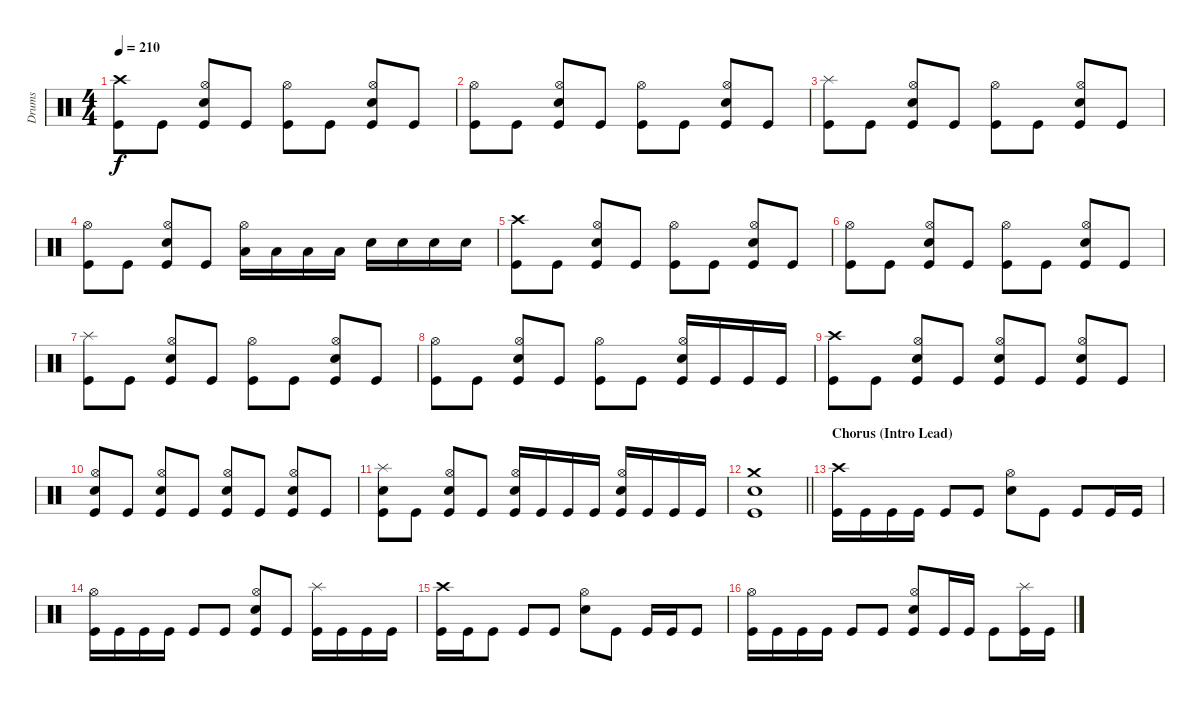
\track ("Drums" "Drums") {instrument percussion}
\staff {score}
\articulation defaults
\ts (4 4)
\tempo 210
\clef neutral
\ks c
("Crash high (hit)" "Kick (hit)").8{dy f} "Kick (hit)".8 ("Hi-Hat (open)" "Electric Snare (hit)" "Kick (hit)").8 "Kick (hit)".8 ("Hi-Hat (open)" "Kick (hit)").8 "Kick (hit)".8 ("Hi-Hat (open)" "Electric Snare (hit)" "Kick (hit)").8 "Kick (hit)".8 |
("Hi-Hat (open)" "Kick (hit)").8 "Kick (hit)".8 ("Hi-Hat (open)" "Electric Snare (hit)" "Kick (hit)").8 "Kick (hit)".8 ("Hi-Hat (open)" "Kick (hit)").8 "Kick (hit)".8 ("Hi-Hat (open)" "Electric Snare (hit)" "Kick (hit)").8 "Kick (hit)".8 |
("Splash (hit)" "Kick (hit)").8 "Kick (hit)".8 ("Hi-Hat (open)" "Electric Snare (hit)" "Kick (hit)").8 "Kick (hit)".8 ("Hi-Hat (open)" "Kick (hit)").8 "Kick (hit)".8 ("Hi-Hat (open)" "Electric Snare (hit)" "Kick (hit)").8 "Kick (hit)".8 |
("Hi-Hat (open)" "Kick (hit)").8 "Kick (hit)".8 ("Hi-Hat (open)" "Electric Snare (hit)" "Kick (hit)").8 "Kick (hit)".8 ("Hi-Hat (open)" "Low Tom (hit)").16 "Low Tom (hit)".16 "Low Tom (hit)".16 "Low Tom (hit)".16 "Electric Snare (hit)".16 "Electric Snare (hit)".16 "Electric Snare (hit)".16 "Electric Snare (hit)".16 |
("Crash high (hit)" "Kick (hit)").8 "Kick (hit)".8 ("Hi-Hat (open)" "Electric Snare (hit)" "Kick (hit)").8 "Kick (hit)".8 ("Hi-Hat (open)" "Kick (hit)").8 "Kick (hit)".8 ("Hi-Hat (open)" "Electric Snare (hit)" "Kick (hit)").8 "Kick (hit)".8 |
("Hi-Hat (open)" "Kick (hit)").8 "Kick (hit)".8 ("Hi-Hat (open)" "Electric Snare (hit)" "Kick (hit)").8 "Kick (hit)".8 ("Hi-Hat (open)" "Kick (hit)").8 "Kick (hit)".8 ("Hi-Hat (open)" "Electric Snare (hit)" "Kick (hit)").8 "Kick (hit)".8 |
("Splash (hit)" "Kick (hit)").8 "Kick (hit)".8 ("Hi-Hat (open)" "Electric Snare (hit)" "Kick (hit)").8 "Kick (hit)".8 ("Hi-Hat (open)" "Kick (hit)").8 "Kick (hit)".8 ("Hi-Hat (open)" "Electric Snare (hit)" "Kick (hit)").8 "Kick (hit)".8 |
("Hi-Hat (open)" "Kick (hit)").8 "Kick (hit)".8 ("Hi-Hat (open)" "Electric Snare (hit)" "Kick (hit)").8 "Kick (hit)".8 ("Hi-Hat (open)" "Kick (hit)").8 "Kick (hit)".8 ("Hi-Hat (open)" "Electric Snare (hit)" "Kick (hit)").16 "Kick (hit)".16 "Kick (hit)".16 "Kick (hit)".16 |
("Crash high (hit)" "Kick (hit)").8 "Kick (hit)".8 ("Hi-Hat (open)" "Electric Snare (hit)" "Kick (hit)").8 "Kick (hit)".8 ("Hi-Hat (open)" "Electric Snare (hit)" "Kick (hit)").8 "Kick (hit)".8 ("Hi-Hat (open)" "Electric Snare (hit)" "Kick (hit)").8 "Kick (hit)".8 |
("Hi-Hat (open)" "Electric Snare (hit)" "Kick (hit)").8 "Kick (hit)".8 ("Hi-Hat (open)" "Electric Snare (hit)" "Kick (hit)").8 "Kick (hit)".8 ("Hi-Hat (open)" "Electric Snare (hit)" "Kick (hit)").8 "Kick (hit)".8 ("Hi-Hat (open)" "Electric Snare (hit)" "Kick (hit)").8 "Kick (hit)".8 |
("Splash (hit)" "Electric Snare (hit)" "Kick (hit)").8 "Kick (hit)".8 ("Hi-Hat (open)" "Electric Snare (hit)" "Kick (hit)").8 "Kick (hit)".8 ("Hi-Hat (open)" "Electric Snare (hit)" "Kick (hit)").16 "Kick (hit)".16 "Kick (hit)".16 "Kick (hit)".16 ("Hi-Hat (open)" "Electric Snare (hit)" "Kick (hit)").16 "Kick (hit)".16 "Kick (hit)".16 "Kick (hit)".16 |
\barLineRight lightlight
("Crash medium (hit)" "Electric Snare (hit)" "Kick (hit)").1 |
\section ("" "Chorus (Intro Lead)")
("Crash high (hit)" "Kick (hit)").16 "Kick (hit)".16 "Kick (hit)".16 "Kick (hit)".16 "Kick (hit)".8 "Kick (hit)".8 ("Hi-Hat (open)" "Snare (hit) 2").8 "Kick (hit)".8 "Kick (hit)".8 "Kick (hit)".16 "Kick (hit)".16 |
("Hi-Hat (open)" "Kick (hit)").16 "Kick (hit)".16 "Kick (hit)".16 "Kick (hit)".16 "Kick (hit)".8 "Kick (hit)".8 ("Hi-Hat (open)" "Snare (hit) 2" "Kick (hit)").8 "Kick (hit)".8 ("Splash (hit)" "Kick (hit)").16 "Kick (hit)".16 "Kick (hit)".16 "Kick (hit)".16 |
("Crash high (hit)" "Kick (hit)").16 "Kick (hit)".16 "Kick (hit)".8 "Kick (hit)".8 "Kick (hit)".8 ("Hi-Hat (open)" "Snare (hit) 2").8 "Kick (hit)".8 "Kick (hit)".16 "Kick (hit)".16 "Kick (hit)".8 |
("Hi-Hat (open)" "Kick (hit)").16 "Kick (hit)".16 "Kick (hit)".16 "Kick (hit)".16 "Kick (hit)".8 "Kick (hit)".8 ("Hi-Hat (open)" "Snare (hit) 2" "Kick (hit)").8 "Kick (hit)".16 "Kick (hit)".16 "Kick (hit)".8 ("Splash (hit)" "Kick (hit)").16 "Kick (hit)".16
